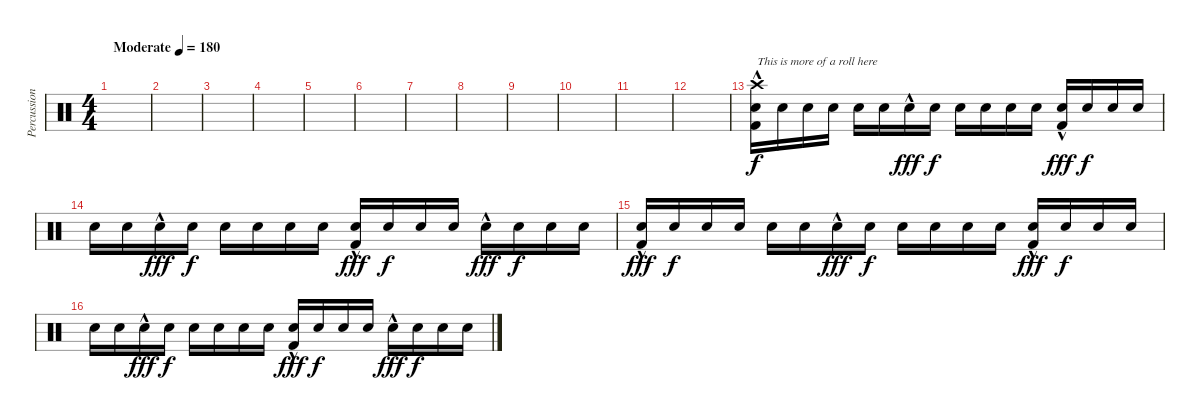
\track ("Percussion" "Percussion") {instrument percussion}
\staff {score}
\articulation defaults
\ts (4 4)
\tempo (180 "Moderate")
\clef neutral
\ks c
|
|
|
|
|
|
|
|
|
|
|
|
("Crash high (hit)" "Electric Snare (hit)" "Kick (hit) 2"{hac}).16{txt "This is more of a roll here"} "Electric Snare (hit)".16{dy f} "Electric Snare (hit)".16 "Electric Snare (hit)".16 "Electric Snare (hit)".16 "Electric Snare (hit)".16 "Electric Snare (hit)"{hac}.16{dy fff} "Electric Snare (hit)".16{dy f} "Electric Snare (hit)".16 "Electric Snare (hit)".16 "Electric Snare (hit)".16 "Electric Snare (hit)".16 ("Electric Snare (hit)" "Kick (hit) 2"{hac}).16{dy fff} "Electric Snare (hit)".16{dy f} "Electric Snare (hit)".16 "Electric Snare (hit)".16 |
"Electric Snare (hit)".16 "Electric Snare (hit)".16 "Electric Snare (hit)"{hac}.16{dy fff} "Electric Snare (hit)".16{dy f} "Electric Snare (hit)".16 "Electric Snare (hit)".16 "Electric Snare (hit)".16 "Electric Snare (hit)".16 ("Electric Snare (hit)" "Kick (hit) 2"{hac}).16{dy fff} "Electric Snare (hit)".16{dy f} "Electric Snare (hit)".16 "Electric Snare (hit)".16 "Electric Snare (hit)"{hac}.16{dy fff} "Electric Snare (hit)".16{dy f} "Electric Snare (hit)".16 "Electric Snare (hit)".16 |
("Electric Snare (hit)" "Kick (hit) 2"{hac}).16{dy fff} "Electric Snare (hit)".16{dy f} "Electric Snare (hit)".16 "Electric Snare (hit)".16 "Electric Snare (hit)".16 "Electric Snare (hit)".16 "Electric Snare (hit)"{hac}.16{dy fff} "Electric Snare (hit)".16{dy f} "Electric Snare (hit)".16 "Electric Snare (hit)".16 "Electric Snare (hit)".16 "Electric Snare (hit)".16 ("Electric Snare (hit)" "Kick (hit) 2"{hac}).16{dy fff} "Electric Snare (hit)".16{dy f} "Electric Snare (hit)".16 "Electric Snare (hit)".16 |
"Electric Snare (hit)".16 "Electric Snare (hit)".16 "Electric Snare (hit)"{hac}.16{dy fff} "Electric Snare (hit)".16{dy f} "Electric Snare (hit)".16 "Electric Snare (hit)".16 "Electric Snare (hit)".16 "Electric Snare (hit)".16 ("Electric Snare (hit)" "Kick (hit) 2"{hac}).16{dy fff} "Electric Snare (hit)".16{dy f} "Electric Snare (hit)".16 "Electric Snare (hit)".16 "Electric Snare (hit)"{hac}.16{dy fff} "Electric Snare (hit)".16{dy f} "Electric Snare (hit)".16 "Electric Snare (hit)".16
